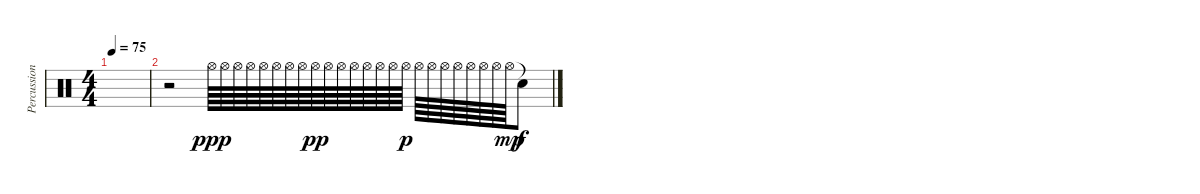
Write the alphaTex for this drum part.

\track ("Percussion" "Percussion") {instrument percussion}
\staff {score}
\articulation defaults
\ts (4 4)
\tempo 75
\clef neutral
\ks c
|
r.2 "Hi-Hat (open)".64{dy ppp} "Hi-Hat (open)".64 "Hi-Hat (open)".64 "Hi-Hat (open)".64 "Hi-Hat (open)".64 "Hi-Hat (open)".64 "Hi-Hat (open)".64 "Hi-Hat (open)".64 "Hi-Hat (open)".64{dy pp} "Hi-Hat (open)".64 "Hi-Hat (open)".64 "Hi-Hat (open)".64 "Hi-Hat (open)".64 "Hi-Hat (open)".64 "Hi-Hat (open)".64 "Hi-Hat (open)".64{dy p} "Hi-Hat (open)".64 "Hi-Hat (open)".64 "Hi-Hat (open)".64 "Hi-Hat (open)".64 "Hi-Hat (open)".64 "Hi-Hat (open)".64 "Hi-Hat (open)".64 "Hi-Hat (open)".64{dy mp} "Snare (hit)"{t}.8{dy f}
